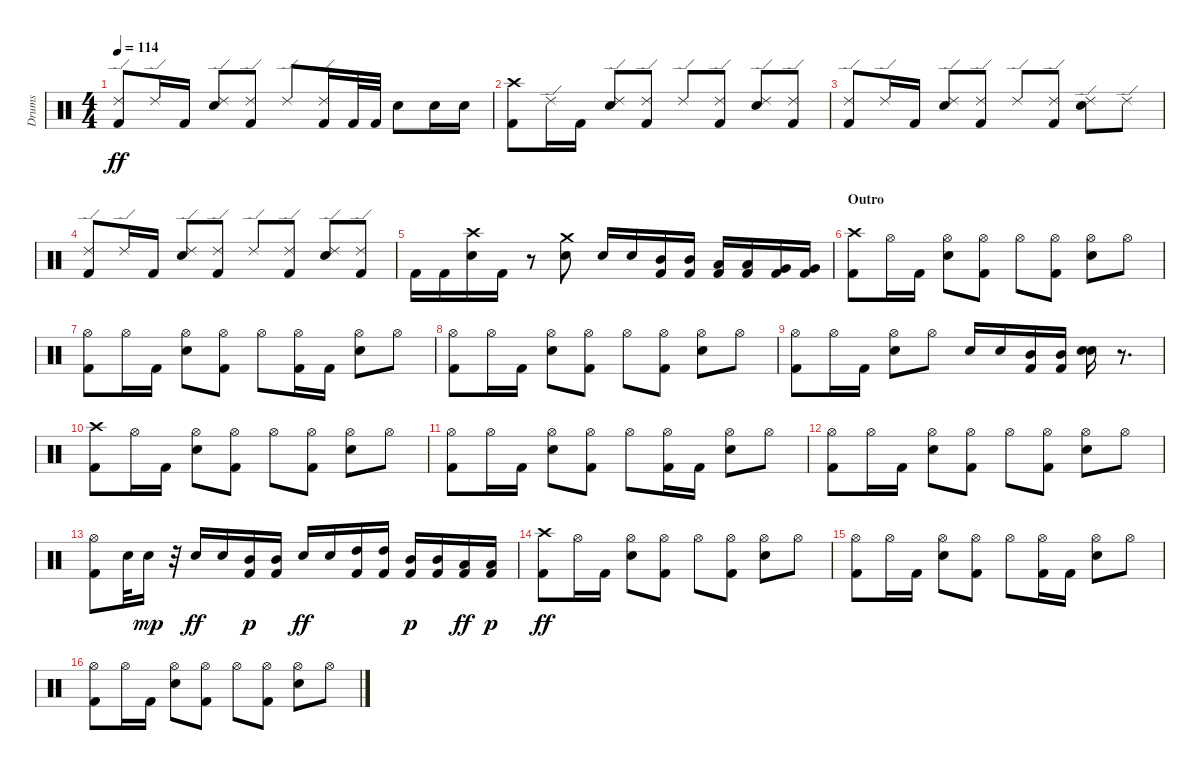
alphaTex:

\track ("Drums               " "Drums     ") {instrument percussion}
\staff {score}
\articulation defaults
\ts (4 4)
\tempo 114
\clef neutral
\ks c
("Kick (hit) 2" "Ride (edge) 2").8{dy ff} "Ride (edge) 2".16 "Kick (hit) 2".16 ("Electric Snare (hit)" "Ride (edge) 2").8 ("Kick (hit) 2" "Ride (edge) 2").8 "Ride (edge) 2".8 ("Kick (hit) 2" "Ride (edge) 2").16 "Kick (hit) 2".32 "Kick (hit) 2".32 "Electric Snare (hit)".8 "Electric Snare (hit)".16 "Electric Snare (hit)".16 |
("Kick (hit) 2" "Crash high (hit)").8 "Ride (edge) 2".16 "Kick (hit) 2".16 ("Electric Snare (hit)" "Ride (edge) 2").8 ("Kick (hit) 2" "Ride (edge) 2").8 "Ride (edge) 2".8 ("Kick (hit) 2" "Ride (edge) 2").8 ("Ride (edge) 2" "Electric Snare (hit)").8 ("Kick (hit) 2" "Ride (edge) 2").8 |
("Kick (hit) 2" "Ride (edge) 2").8 "Ride (edge) 2".16 "Kick (hit) 2".16 ("Electric Snare (hit)" "Ride (edge) 2").8 ("Kick (hit) 2" "Ride (edge) 2").8 "Ride (edge) 2".8 ("Ride (edge) 2" "Kick (hit) 2").8 ("Ride (edge) 2" "Electric Snare (hit)").8 "Ride (edge) 2".8 |
("Kick (hit) 2" "Ride (edge) 2").8 "Ride (edge) 2".16 "Kick (hit) 2".16 ("Electric Snare (hit)" "Ride (edge) 2").8 ("Kick (hit) 2" "Ride (edge) 2").8 "Ride (edge) 2".8 ("Kick (hit) 2" "Ride (edge) 2").8 ("Ride (edge) 2" "Electric Snare (hit)").8 ("Kick (hit) 2" "Ride (edge) 2").8 |
"Kick (hit) 2".16 "Kick (hit) 2".16 ("Crash high (hit)" "Electric Snare (hit)").16 "Kick (hit) 2".16 r.8 ("Crash medium (hit)" "Electric Snare (hit)").8 "Electric Snare (hit)".16 "Electric Snare (hit)".16 ("Kick (hit) 2" "Mid Tom (hit)").16 ("Kick (hit) 2" "Mid Tom (hit)").16 ("Kick (hit) 2" "Low Tom (hit)").16 ("Kick (hit) 2" "Low Tom (hit)").16 ("Kick (hit) 2" "Very Low Tom (hit)").16 ("Kick (hit) 2" "Very Low Tom (hit)").16 |
\section ("" "Outro")
("Kick (hit) 2" "Crash high (hit)").8 "Hi-Hat (open)".16 "Kick (hit) 2".16 ("Hi-Hat (open)" "Electric Snare (hit)").8 ("Kick (hit) 2" "Hi-Hat (open)").8 "Hi-Hat (open)".8 ("Kick (hit) 2" "Hi-Hat (open)").8 ("Hi-Hat (open)" "Electric Snare (hit)").8 "Hi-Hat (open)".8 |
("Kick (hit) 2" "Hi-Hat (open)").8 "Hi-Hat (open)".16 "Kick (hit) 2".16 ("Hi-Hat (open)" "Electric Snare (hit)").8 ("Kick (hit) 2" "Hi-Hat (open)").8 "Hi-Hat (open)".8 ("Kick (hit) 2" "Hi-Hat (open)").16 "Kick (hit) 2".16 ("Hi-Hat (open)" "Electric Snare (hit)").8 "Hi-Hat (open)".8 |
("Kick (hit) 2" "Hi-Hat (open)").8 "Hi-Hat (open)".16 "Kick (hit) 2".16 ("Hi-Hat (open)" "Electric Snare (hit)").8 ("Kick (hit) 2" "Hi-Hat (open)").8 "Hi-Hat (open)".8 ("Kick (hit) 2" "Hi-Hat (open)").8 ("Hi-Hat (open)" "Electric Snare (hit)").8 "Hi-Hat (open)".8 |
("Kick (hit) 2" "Hi-Hat (open)").8 "Hi-Hat (open)".16 "Kick (hit) 2".16 ("Hi-Hat (open)" "Electric Snare (hit)").8 "Hi-Hat (open)".8 "Electric Snare (hit)".16 "Electric Snare (hit)".16 ("Kick (hit) 2" "Mid Tom (hit)").16 ("Kick (hit) 2" "Mid Tom (hit)").16 ("Metronome (bell)" "Electric Snare (hit)").16 r.8{d} |
("Crash high (hit)" "Kick (hit) 2").8 "Hi-Hat (open)".16 "Kick (hit) 2".16 ("Electric Snare (hit)" "Hi-Hat (open)").8 ("Hi-Hat (open)" "Kick (hit) 2").8 "Hi-Hat (open)".8 ("Kick (hit) 2" "Hi-Hat (open)").8 ("Hi-Hat (open)" "Electric Snare (hit)").8 "Hi-Hat (open)".8 |
("Hi-Hat (open)" "Kick (hit) 2").8 "Hi-Hat (open)".16 "Kick (hit) 2".16 ("Electric Snare (hit)" "Hi-Hat (open)").8 ("Hi-Hat (open)" "Kick (hit) 2").8 "Hi-Hat (open)".8 ("Kick (hit) 2" "Hi-Hat (open)").16 "Kick (hit) 2".16 ("Electric Snare (hit)" "Hi-Hat (open)").8 "Hi-Hat (open)".8 |
("Hi-Hat (open)" "Kick (hit) 2").8 "Hi-Hat (open)".16 "Kick (hit) 2".16 ("Electric Snare (hit)" "Hi-Hat (open)").8 ("Hi-Hat (open)" "Kick (hit) 2").8 "Hi-Hat (open)".8 ("Kick (hit) 2" "Hi-Hat (open)").8 ("Hi-Hat (open)" "Electric Snare (hit)").8 "Hi-Hat (open)".8 |
("Hi-Hat (open)" "Kick (hit) 2").8 "Electric Snare (hit)".32 "Metronome (bell)".16{dy mp} r.32 "Electric Snare (hit)".16{dy ff} "Electric Snare (hit)".16 ("Mid Tom (hit)" "Kick (hit) 2").16{dy p} ("Mid Tom (hit)" "Kick (hit) 2").16 "Electric Snare (hit)".16{dy ff} "Electric Snare (hit)".16 ("Kick (hit) 2" "High Tom (hit)").16 ("Kick (hit) 2" "High Tom (hit)").16 ("Mid Tom (hit)" "Kick (hit) 2").16{dy p} ("Mid Tom (hit)" "Kick (hit) 2").16 ("Kick (hit) 2" "Low Tom (hit)").16{dy ff} ("Low Tom (hit)" "Kick (hit) 2").16{dy p} |
("Crash high (hit)" "Kick (hit) 2").8{dy ff} "Hi-Hat (open)".16 "Kick (hit) 2".16 ("Electric Snare (hit)" "Hi-Hat (open)").8 ("Hi-Hat (open)" "Kick (hit) 2").8 "Hi-Hat (open)".8 ("Kick (hit) 2" "Hi-Hat (open)").8 ("Hi-Hat (open)" "Electric Snare (hit)").8 "Hi-Hat (open)".8 |
("Hi-Hat (open)" "Kick (hit) 2").8 "Hi-Hat (open)".16 "Kick (hit) 2".16 ("Electric Snare (hit)" "Hi-Hat (open)").8 ("Hi-Hat (open)" "Kick (hit) 2").8 "Hi-Hat (open)".8 ("Kick (hit) 2" "Hi-Hat (open)").16 "Kick (hit) 2".16 ("Electric Snare (hit)" "Hi-Hat (open)").8 "Hi-Hat (open)".8 |
("Hi-Hat (open)" "Kick (hit) 2").8 "Hi-Hat (open)".16 "Kick (hit) 2".16 ("Electric Snare (hit)" "Hi-Hat (open)").8 ("Hi-Hat (open)" "Kick (hit) 2").8 "Hi-Hat (open)".8 ("Kick (hit) 2" "Hi-Hat (open)").8 ("Hi-Hat (open)" "Electric Snare (hit)").8 "Hi-Hat (open)".8
